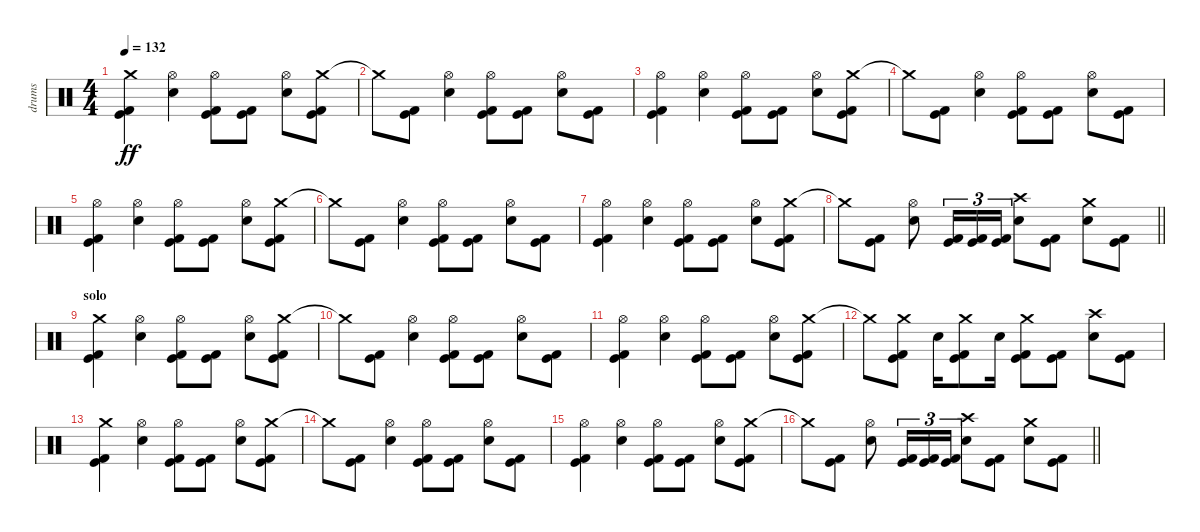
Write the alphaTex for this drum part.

\track ("drums" "drums") {instrument percussion}
\staff {score}
\articulation defaults
\ts (4 4)
\section ("" "")
\tempo 132
\clef neutral
\ks c
("Crash medium (hit)" "Kick (hit)" "Kick (hit) 2").4{dy ff} ("Electric Snare (hit)" "Hi-Hat (open)").4 ("Hi-Hat (open)" "Kick (hit)" "Kick (hit) 2").8 ("Kick (hit)" "Kick (hit) 2").8 ("Electric Snare (hit)" "Hi-Hat (open)").8 ("Crash medium (hit)" "Kick (hit)" "Kick (hit) 2").8 |
"Crash medium (hit)"{t}.8 ("Kick (hit)" "Kick (hit) 2").8 ("Electric Snare (hit)" "Hi-Hat (open)").4 ("Hi-Hat (open)" "Kick (hit)" "Kick (hit) 2").8 ("Kick (hit)" "Kick (hit) 2").8 ("Electric Snare (hit)" "Hi-Hat (open)").8 ("Kick (hit)" "Kick (hit) 2").8 |
("Hi-Hat (open)" "Kick (hit)" "Kick (hit) 2").4 ("Electric Snare (hit)" "Hi-Hat (open)").4 ("Hi-Hat (open)" "Kick (hit)" "Kick (hit) 2").8 ("Kick (hit)" "Kick (hit) 2").8 ("Electric Snare (hit)" "Hi-Hat (open)").8 ("Crash medium (hit)" "Kick (hit)" "Kick (hit) 2").8 |
"Crash medium (hit)"{t}.8 ("Kick (hit)" "Kick (hit) 2").8 ("Electric Snare (hit)" "Hi-Hat (open)").4 ("Hi-Hat (open)" "Kick (hit)" "Kick (hit) 2").8 ("Kick (hit)" "Kick (hit) 2").8 ("Electric Snare (hit)" "Hi-Hat (open)").8 ("Kick (hit)" "Kick (hit) 2").8 |
("Hi-Hat (open)" "Kick (hit)" "Kick (hit) 2").4 ("Electric Snare (hit)" "Hi-Hat (open)").4 ("Hi-Hat (open)" "Kick (hit)" "Kick (hit) 2").8 ("Kick (hit)" "Kick (hit) 2").8 ("Electric Snare (hit)" "Hi-Hat (open)").8 ("Crash medium (hit)" "Kick (hit)" "Kick (hit) 2").8 |
"Crash medium (hit)"{t}.8 ("Kick (hit)" "Kick (hit) 2").8 ("Electric Snare (hit)" "Hi-Hat (open)").4 ("Hi-Hat (open)" "Kick (hit)" "Kick (hit) 2").8 ("Kick (hit)" "Kick (hit) 2").8 ("Electric Snare (hit)" "Hi-Hat (open)").8 ("Kick (hit)" "Kick (hit) 2").8 |
("Hi-Hat (open)" "Kick (hit)" "Kick (hit) 2").4 ("Electric Snare (hit)" "Hi-Hat (open)").4 ("Hi-Hat (open)" "Kick (hit)" "Kick (hit) 2").8 ("Kick (hit)" "Kick (hit) 2").8 ("Electric Snare (hit)" "Hi-Hat (open)").8 ("Crash medium (hit)" "Kick (hit)" "Kick (hit) 2").8 |
\barLineRight lightlight "Crash medium (hit)"{t}.8
("Kick (hit)" "Kick (hit) 2").8 ("Electric Snare (hit)" "Hi-Hat (open)").8 ("Kick (hit)" "Kick (hit) 2").16{tu (3 2)} ("Kick (hit)" "Kick (hit) 2").16{tu (3 2)} ("Kick (hit)" "Kick (hit) 2").16{tu (3 2)} ("Crash high (hit)" "Electric Snare (hit)").8 ("Kick (hit)" "Kick (hit) 2").8 ("Crash medium (hit)" "Electric Snare (hit)").8 ("Kick (hit)" "Kick (hit) 2").8 |
\section ("" "solo")
("Crash medium (hit)" "Kick (hit)" "Kick (hit) 2").4 ("Electric Snare (hit)" "Hi-Hat (open)").4 ("Hi-Hat (open)" "Kick (hit)" "Kick (hit) 2").8 ("Kick (hit)" "Kick (hit) 2").8 ("Electric Snare (hit)" "Hi-Hat (open)").8 ("Crash medium (hit)" "Kick (hit)" "Kick (hit) 2").8 |
"Crash medium (hit)"{t}.8 ("Kick (hit)" "Kick (hit) 2").8 ("Electric Snare (hit)" "Hi-Hat (open)").4 ("Hi-Hat (open)" "Kick (hit)" "Kick (hit) 2").8 ("Kick (hit)" "Kick (hit) 2").8 ("Electric Snare (hit)" "Hi-Hat (open)").8 ("Kick (hit)" "Kick (hit) 2").8 |
("Hi-Hat (open)" "Kick (hit)" "Kick (hit) 2").4 ("Electric Snare (hit)" "Hi-Hat (open)").4 ("Hi-Hat (open)" "Kick (hit)" "Kick (hit) 2").8 ("Kick (hit)" "Kick (hit) 2").8 ("Electric Snare (hit)" "Hi-Hat (open)").8 ("Crash medium (hit)" "Kick (hit)" "Kick (hit) 2").8 |
"Crash medium (hit)"{t}.8 ("Crash medium (hit)" "Kick (hit)" "Kick (hit) 2").8 "Electric Snare (hit)".16 ("Crash medium (hit)" "Kick (hit)" "Kick (hit) 2").8 "Electric Snare (hit)".16 ("Crash medium (hit)" "Kick (hit)" "Kick (hit) 2").8 ("Kick (hit)" "Kick (hit) 2").8 ("Crash high (hit)" "Electric Snare (hit)").8 ("Kick (hit)" "Kick (hit) 2").8 |
("Crash medium (hit)" "Kick (hit)" "Kick (hit) 2").4 ("Electric Snare (hit)" "Hi-Hat (open)").4 ("Hi-Hat (open)" "Kick (hit)" "Kick (hit) 2").8 ("Kick (hit)" "Kick (hit) 2").8 ("Electric Snare (hit)" "Hi-Hat (open)").8 ("Crash medium (hit)" "Kick (hit)" "Kick (hit) 2").8 |
"Crash medium (hit)"{t}.8 ("Kick (hit)" "Kick (hit) 2").8 ("Electric Snare (hit)" "Hi-Hat (open)").4 ("Hi-Hat (open)" "Kick (hit)" "Kick (hit) 2").8 ("Kick (hit)" "Kick (hit) 2").8 ("Electric Snare (hit)" "Hi-Hat (open)").8 ("Kick (hit)" "Kick (hit) 2").8 |
("Hi-Hat (open)" "Kick (hit)" "Kick (hit) 2").4 ("Electric Snare (hit)" "Hi-Hat (open)").4 ("Hi-Hat (open)" "Kick (hit)" "Kick (hit) 2").8 ("Kick (hit)" "Kick (hit) 2").8 ("Electric Snare (hit)" "Hi-Hat (open)").8 ("Crash medium (hit)" "Kick (hit)" "Kick (hit) 2").8 |
\barLineRight lightlight "Crash medium (hit)"{t}.8
("Kick (hit)" "Kick (hit) 2").8 ("Electric Snare (hit)" "Hi-Hat (open)").8 ("Kick (hit)" "Kick (hit) 2").16{tu (3 2)} ("Kick (hit)" "Kick (hit) 2").16{tu (3 2)} ("Kick (hit)" "Kick (hit) 2").16{tu (3 2)} ("Crash high (hit)" "Electric Snare (hit)").8 ("Kick (hit)" "Kick (hit) 2").8 ("Crash medium (hit)" "Electric Snare (hit)").8 ("Kick (hit)" "Kick (hit) 2").8
